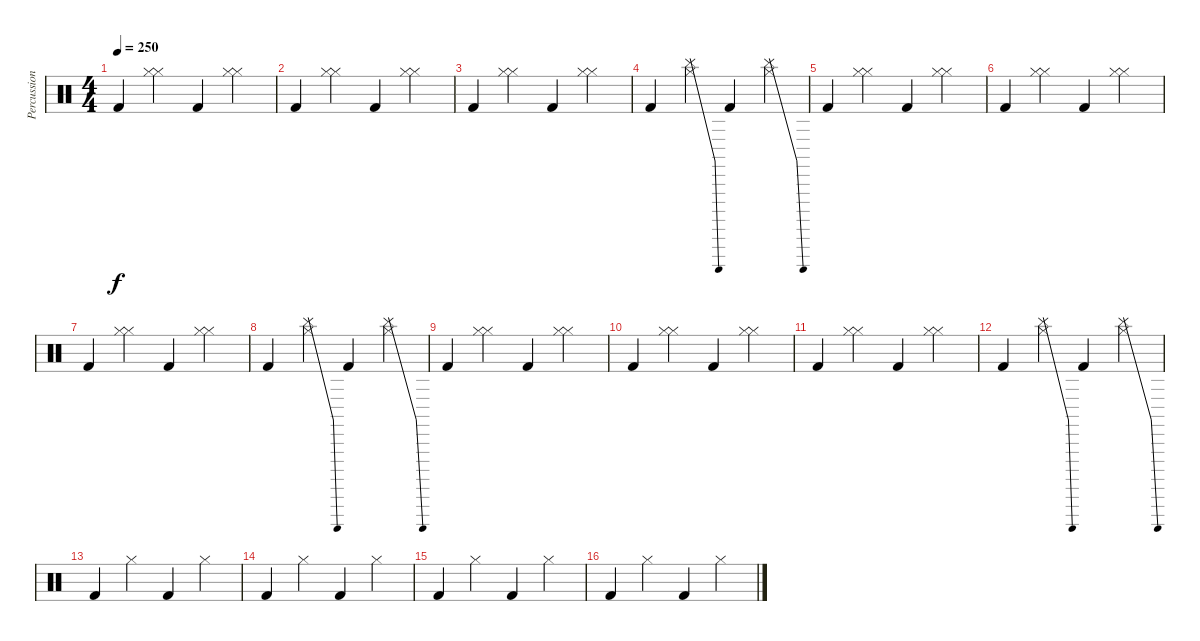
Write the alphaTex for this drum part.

\track ("Percussion" "Percussion") {instrument percussion}
\staff {score}
\articulation defaults
\ts (4 4)
\tempo 250
\clef neutral
\ks c "Kick (hit) 2".4{dy f}
("Hi-Hat (closed)" "Hi-Hat (closed)").4 "Kick (hit) 2".4 ("Hi-Hat (closed)" "Hi-Hat (closed)").4 |
"Kick (hit) 2".4 ("Hi-Hat (closed)" "Hi-Hat (closed)").4 "Kick (hit) 2".4 ("Hi-Hat (closed)" "Hi-Hat (closed)").4 |
"Kick (hit) 2".4 ("Hi-Hat (closed)" "Hi-Hat (closed)").4 "Kick (hit) 2".4 ("Hi-Hat (closed)" "Hi-Hat (closed)").4 |
"Kick (hit) 2".4 ("Hi-Hat (closed)" "Cymbal (hit)"{be (bend 0 0 60 4)}).4 "Kick (hit) 2".4 ("Hi-Hat (closed)" "Cymbal (hit)"{be (bend 0 0 60 4)}).4 |
"Kick (hit) 2".4 ("Hi-Hat (closed)" "Hi-Hat (closed)").4 "Kick (hit) 2".4 ("Hi-Hat (closed)" "Hi-Hat (closed)").4 |
"Kick (hit) 2".4 ("Hi-Hat (closed)" "Hi-Hat (closed)").4 "Kick (hit) 2".4 ("Hi-Hat (closed)" "Hi-Hat (closed)").4 |
"Kick (hit) 2".4 ("Hi-Hat (closed)" "Hi-Hat (closed)").4 "Kick (hit) 2".4 ("Hi-Hat (closed)" "Hi-Hat (closed)").4 |
"Kick (hit) 2".4 ("Hi-Hat (closed)" "Cymbal (hit)"{be (bend 0 0 60 4)}).4 "Kick (hit) 2".4 ("Hi-Hat (closed)" "Cymbal (hit)"{be (bend 0 0 60 4)}).4 |
"Kick (hit) 2".4 ("Hi-Hat (closed)" "Hi-Hat (closed)").4 "Kick (hit) 2".4 ("Hi-Hat (closed)" "Hi-Hat (closed)").4 |
"Kick (hit) 2".4 ("Hi-Hat (closed)" "Hi-Hat (closed)").4 "Kick (hit) 2".4 ("Hi-Hat (closed)" "Hi-Hat (closed)").4 |
"Kick (hit) 2".4 ("Hi-Hat (closed)" "Hi-Hat (closed)").4 "Kick (hit) 2".4 ("Hi-Hat (closed)" "Hi-Hat (closed)").4 |
"Kick (hit) 2".4 ("Hi-Hat (closed)" "Cymbal (hit)"{be (bend 0 0 60 4)}).4 "Kick (hit) 2".4 ("Hi-Hat (closed)" "Cymbal (hit)"{be (bend 0 0 60 4)}).4 |
"Kick (hit) 2".4 "Hi-Hat (closed)".4 "Kick (hit) 2".4 "Hi-Hat (closed)".4 |
"Kick (hit) 2".4 "Hi-Hat (closed)".4 "Kick (hit) 2".4 "Hi-Hat (closed)".4 |
"Kick (hit) 2".4 "Hi-Hat (closed)".4 "Kick (hit) 2".4 "Hi-Hat (closed)".4 |
"Kick (hit) 2".4 "Hi-Hat (closed)".4 "Kick (hit) 2".4 "Hi-Hat (closed)".4
